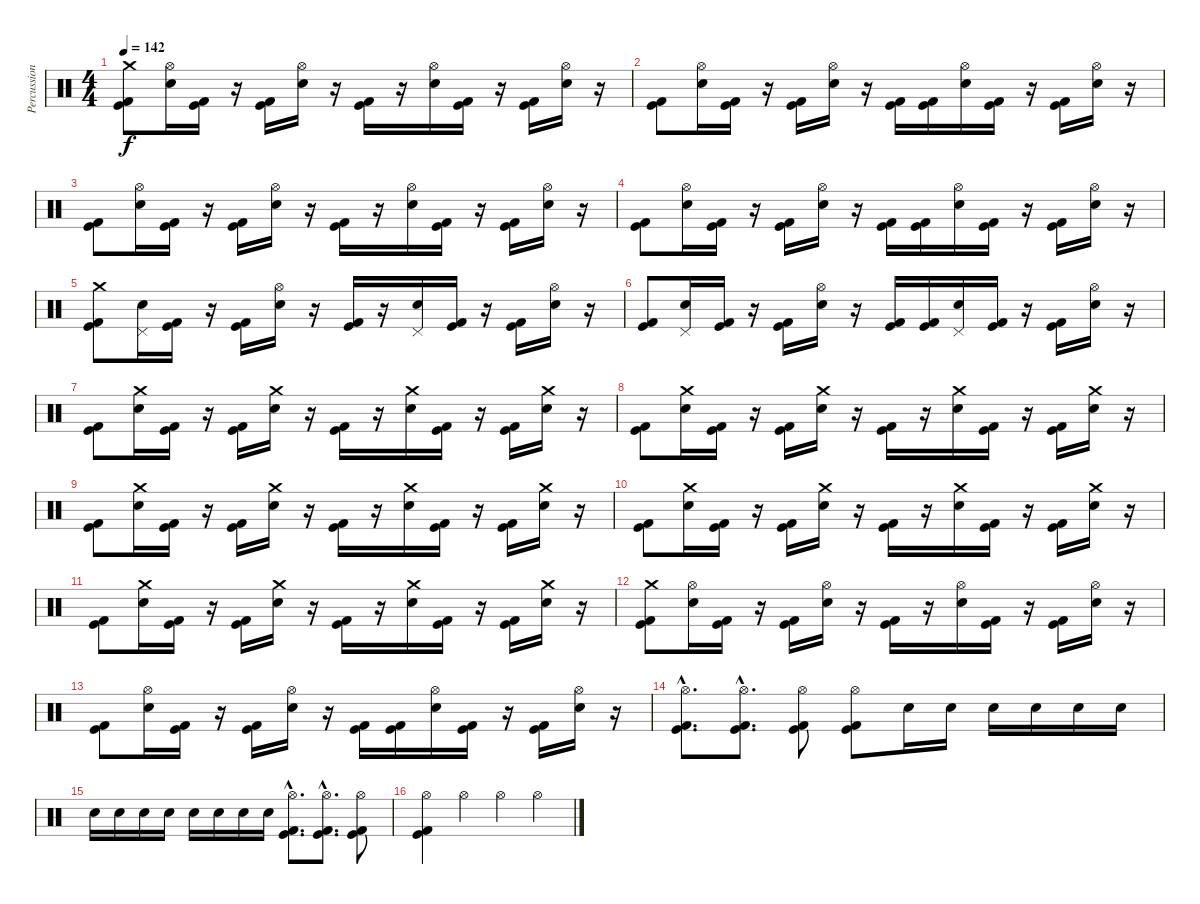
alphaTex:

\track ("Percussions" "Percussion") {instrument percussion}
\staff {score}
\articulation defaults
\ts (4 4)
\tempo 142
\clef neutral
\ks c
("Crash medium (hit)" "Kick (hit)" "Kick (hit) 2").8{dy f} ("Hi-Hat (open)" "Electric Snare (hit)").16 ("Kick (hit)" "Kick (hit) 2").16 r.16 ("Kick (hit)" "Kick (hit) 2").16 ("Hi-Hat (open)" "Electric Snare (hit)").16 r.16 ("Kick (hit)" "Kick (hit) 2").16 r.16 ("Hi-Hat (open)" "Electric Snare (hit)").16 ("Kick (hit)" "Kick (hit) 2").16 r.16 ("Kick (hit)" "Kick (hit) 2").16 ("Hi-Hat (open)" "Electric Snare (hit)").16 r.16 |
("Kick (hit)" "Kick (hit) 2").8 ("Hi-Hat (open)" "Electric Snare (hit)").16 ("Kick (hit)" "Kick (hit) 2").16 r.16 ("Kick (hit)" "Kick (hit) 2").16 ("Hi-Hat (open)" "Electric Snare (hit)").16 r.16 ("Kick (hit)" "Kick (hit) 2").16 ("Kick (hit)" "Kick (hit) 2").16 ("Hi-Hat (open)" "Electric Snare (hit)").16 ("Kick (hit)" "Kick (hit) 2").16 r.16 ("Kick (hit)" "Kick (hit) 2").16 ("Hi-Hat (open)" "Electric Snare (hit)").16 r.16 |
("Kick (hit)" "Kick (hit) 2").8 ("Hi-Hat (open)" "Electric Snare (hit)").16 ("Kick (hit)" "Kick (hit) 2").16 r.16 ("Kick (hit)" "Kick (hit) 2").16 ("Hi-Hat (open)" "Electric Snare (hit)").16 r.16 ("Kick (hit)" "Kick (hit) 2").16 r.16 ("Hi-Hat (open)" "Electric Snare (hit)").16 ("Kick (hit)" "Kick (hit) 2").16 r.16 ("Kick (hit)" "Kick (hit) 2").16 ("Hi-Hat (open)" "Electric Snare (hit)").16 r.16 |
("Kick (hit)" "Kick (hit) 2").8 ("Hi-Hat (open)" "Electric Snare (hit)").16 ("Kick (hit)" "Kick (hit) 2").16 r.16 ("Kick (hit)" "Kick (hit) 2").16 ("Hi-Hat (open)" "Electric Snare (hit)").16 r.16 ("Kick (hit)" "Kick (hit) 2").16 ("Kick (hit)" "Kick (hit) 2").16 ("Hi-Hat (open)" "Electric Snare (hit)").16 ("Kick (hit)" "Kick (hit) 2").16 r.16 ("Kick (hit)" "Kick (hit) 2").16 ("Hi-Hat (open)" "Electric Snare (hit)").16 r.16 |
("Crash medium (hit)" "Kick (hit)" "Kick (hit) 2").8 ("Pedal Hi-Hat (hit)" "Electric Snare (hit)").16 ("Kick (hit)" "Kick (hit) 2").16 r.16 ("Kick (hit)" "Kick (hit) 2").16 ("Hi-Hat (open)" "Electric Snare (hit)").16 r.16 ("Kick (hit)" "Kick (hit) 2").16 r.16 ("Pedal Hi-Hat (hit)" "Electric Snare (hit)").16 ("Kick (hit)" "Kick (hit) 2").16 r.16 ("Kick (hit)" "Kick (hit) 2").16 ("Hi-Hat (open)" "Electric Snare (hit)").16 r.16 |
("Kick (hit)" "Kick (hit) 2").8 ("Pedal Hi-Hat (hit)" "Electric Snare (hit)").16 ("Kick (hit)" "Kick (hit) 2").16 r.16 ("Kick (hit)" "Kick (hit) 2").16 ("Hi-Hat (open)" "Electric Snare (hit)").16 r.16 ("Kick (hit)" "Kick (hit) 2").16 ("Kick (hit)" "Kick (hit) 2").16 ("Pedal Hi-Hat (hit)" "Electric Snare (hit)").16 ("Kick (hit)" "Kick (hit) 2").16 r.16 ("Kick (hit)" "Kick (hit) 2").16 ("Hi-Hat (open)" "Electric Snare (hit)").16 r.16 |
("Kick (hit)" "Kick (hit) 2").8 ("Crash medium (hit)" "Electric Snare (hit)").16 ("Kick (hit)" "Kick (hit) 2").16 r.16 ("Kick (hit)" "Kick (hit) 2").16 ("Crash medium (hit)" "Electric Snare (hit)").16 r.16 ("Kick (hit)" "Kick (hit) 2").16 r.16 ("Crash medium (hit)" "Electric Snare (hit)").16 ("Kick (hit)" "Kick (hit) 2").16 r.16 ("Kick (hit)" "Kick (hit) 2").16 ("Crash medium (hit)" "Electric Snare (hit)").16 r.16 |
("Kick (hit)" "Kick (hit) 2").8 ("Crash medium (hit)" "Electric Snare (hit)").16 ("Kick (hit)" "Kick (hit) 2").16 r.16 ("Kick (hit)" "Kick (hit) 2").16 ("Crash medium (hit)" "Electric Snare (hit)").16 r.16 ("Kick (hit)" "Kick (hit) 2").16 r.16 ("Crash medium (hit)" "Electric Snare (hit)").16 ("Kick (hit)" "Kick (hit) 2").16 r.16 ("Kick (hit)" "Kick (hit) 2").16 ("Crash medium (hit)" "Electric Snare (hit)").16 r.16 |
("Kick (hit)" "Kick (hit) 2").8 ("Crash medium (hit)" "Electric Snare (hit)").16 ("Kick (hit)" "Kick (hit) 2").16 r.16 ("Kick (hit)" "Kick (hit) 2").16 ("Crash medium (hit)" "Electric Snare (hit)").16 r.16 ("Kick (hit)" "Kick (hit) 2").16 r.16 ("Crash medium (hit)" "Electric Snare (hit)").16 ("Kick (hit)" "Kick (hit) 2").16 r.16 ("Kick (hit)" "Kick (hit) 2").16 ("Crash medium (hit)" "Electric Snare (hit)").16 r.16 |
("Kick (hit)" "Kick (hit) 2").8 ("Crash medium (hit)" "Electric Snare (hit)").16 ("Kick (hit)" "Kick (hit) 2").16 r.16 ("Kick (hit)" "Kick (hit) 2").16 ("Crash medium (hit)" "Electric Snare (hit)").16 r.16 ("Kick (hit)" "Kick (hit) 2").16 r.16 ("Crash medium (hit)" "Electric Snare (hit)").16 ("Kick (hit)" "Kick (hit) 2").16 r.16 ("Kick (hit)" "Kick (hit) 2").16 ("Crash medium (hit)" "Electric Snare (hit)").16 r.16 |
("Kick (hit)" "Kick (hit) 2").8 ("Crash medium (hit)" "Electric Snare (hit)").16 ("Kick (hit)" "Kick (hit) 2").16 r.16 ("Kick (hit)" "Kick (hit) 2").16 ("Crash medium (hit)" "Electric Snare (hit)").16 r.16 ("Kick (hit)" "Kick (hit) 2").16 r.16 ("Crash medium (hit)" "Electric Snare (hit)").16 ("Kick (hit)" "Kick (hit) 2").16 r.16 ("Kick (hit)" "Kick (hit) 2").16 ("Crash medium (hit)" "Electric Snare (hit)").16 r.16 |
("Crash medium (hit)" "Kick (hit)" "Kick (hit) 2").8 ("Hi-Hat (open)" "Electric Snare (hit)").16 ("Kick (hit)" "Kick (hit) 2").16 r.16 ("Kick (hit)" "Kick (hit) 2").16 ("Hi-Hat (open)" "Electric Snare (hit)").16 r.16 ("Kick (hit)" "Kick (hit) 2").16 r.16 ("Hi-Hat (open)" "Electric Snare (hit)").16 ("Kick (hit)" "Kick (hit) 2").16 r.16 ("Kick (hit)" "Kick (hit) 2").16 ("Hi-Hat (open)" "Electric Snare (hit)").16 r.16 |
("Kick (hit)" "Kick (hit) 2").8 ("Hi-Hat (open)" "Electric Snare (hit)").16 ("Kick (hit)" "Kick (hit) 2").16 r.16 ("Kick (hit)" "Kick (hit) 2").16 ("Hi-Hat (open)" "Electric Snare (hit)").16 r.16 ("Kick (hit)" "Kick (hit) 2").16 ("Kick (hit)" "Kick (hit) 2").16 ("Hi-Hat (open)" "Electric Snare (hit)").16 ("Kick (hit)" "Kick (hit) 2").16 r.16 ("Kick (hit)" "Kick (hit) 2").16 ("Hi-Hat (open)" "Electric Snare (hit)").16 r.16 |
("Hi-Hat (open)"{hac} "Kick (hit)"{hac} "Kick (hit) 2"{hac}).8{d} ("Hi-Hat (open)"{hac} "Kick (hit)"{hac} "Kick (hit) 2"{hac}).8{d} ("Hi-Hat (open)" "Kick (hit)" "Kick (hit) 2").8 ("Hi-Hat (open)" "Kick (hit)" "Kick (hit) 2").8 "Electric Snare (hit)".16 "Electric Snare (hit)".16 "Electric Snare (hit)".16 "Electric Snare (hit)".16 "Electric Snare (hit)".16 "Electric Snare (hit)".16 |
"Electric Snare (hit)".16 "Electric Snare (hit)".16 "Electric Snare (hit)".16 "Electric Snare (hit)".16 "Electric Snare (hit)".16 "Electric Snare (hit)".16 "Electric Snare (hit)".16 "Electric Snare (hit)".16 ("Hi-Hat (open)"{hac} "Kick (hit)"{hac} "Kick (hit) 2"{hac}).8{d} ("Hi-Hat (open)"{hac} "Kick (hit)"{hac} "Kick (hit) 2"{hac}).8{d} ("Hi-Hat (open)" "Kick (hit)" "Kick (hit) 2").8 |
("Hi-Hat (open)" "Kick (hit)" "Kick (hit) 2").4 "Hi-Hat (open)".4 "Hi-Hat (open)".4 "Hi-Hat (open)".4
